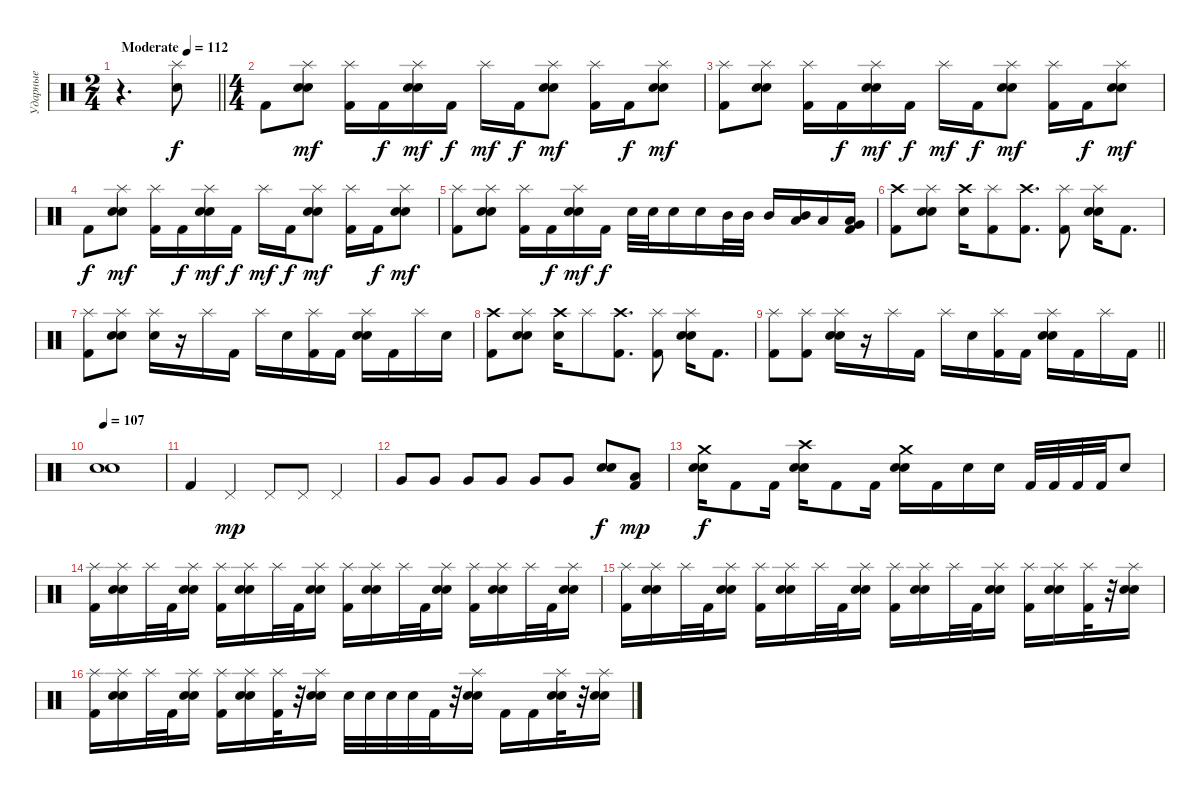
\track ("Ударные" "Ударные") {instrument percussion}
\staff {score}
\articulation defaults
\ts (2 4)
\tempo (112 "Moderate")
\clef neutral
\barLineRight lightlight
\ks c
r.4{d dy f} ("Splash (hit)" "Electric Snare (hit)").8 |
\ts (4 4)
\section ("" "")
"Kick (hit) 2".8 ("Splash (hit)" "Electric Snare (hit)" "Snare (hit) 2").8{dy mf} ("Splash (hit)" "Kick (hit) 2").16 "Kick (hit) 2".16{dy f} ("Splash (hit)" "Electric Snare (hit)" "Snare (hit) 2").16{dy mf} "Kick (hit) 2".16{dy f} "Splash (hit)".16{dy mf} "Kick (hit) 2".16{dy f} ("Splash (hit)" "Electric Snare (hit)" "Snare (hit) 2").8{dy mf} ("Splash (hit)" "Kick (hit) 2").16 "Kick (hit) 2".16{dy f} ("Splash (hit)" "Electric Snare (hit)" "Snare (hit) 2").8{dy mf} |
("Splash (hit)" "Kick (hit) 2").8 ("Splash (hit)" "Electric Snare (hit)" "Snare (hit) 2").8 ("Splash (hit)" "Kick (hit) 2").16 "Kick (hit) 2".16{dy f} ("Splash (hit)" "Electric Snare (hit)" "Snare (hit) 2").16{dy mf} "Kick (hit) 2".16{dy f} "Splash (hit)".16{dy mf} "Kick (hit) 2".16{dy f} ("Splash (hit)" "Electric Snare (hit)" "Snare (hit) 2").8{dy mf} ("Splash (hit)" "Kick (hit) 2").16 "Kick (hit) 2".16{dy f} ("Splash (hit)" "Electric Snare (hit)" "Snare (hit) 2").8{dy mf} |
"Kick (hit) 2".8{dy f} ("Splash (hit)" "Electric Snare (hit)" "Snare (hit) 2").8{dy mf} ("Splash (hit)" "Kick (hit) 2").16 "Kick (hit) 2".16{dy f} ("Splash (hit)" "Electric Snare (hit)" "Snare (hit) 2").16{dy mf} "Kick (hit) 2".16{dy f} "Splash (hit)".16{dy mf} "Kick (hit) 2".16{dy f} ("Splash (hit)" "Electric Snare (hit)" "Snare (hit) 2").8{dy mf} ("Splash (hit)" "Kick (hit) 2").16 "Kick (hit) 2".16{dy f} ("Splash (hit)" "Electric Snare (hit)" "Snare (hit) 2").8{dy mf} |
("Splash (hit)" "Kick (hit) 2").8 ("Splash (hit)" "Electric Snare (hit)" "Snare (hit) 2").8 ("Splash (hit)" "Kick (hit) 2").16 "Kick (hit) 2".16{dy f} ("Splash (hit)" "Electric Snare (hit)" "Snare (hit) 2").16{dy mf} "Kick (hit) 2".16{dy f} "Electric Snare (hit)".32 "Electric Snare (hit)".32 "Electric Snare (hit)".16 "Electric Snare (hit)".16 "Mid Tom (hit)".32 "Mid Tom (hit)".32 "Mid Tom (hit)".16 ("Mid Tom (hit)" "Low Tom (hit)").16 "Low Tom (hit)".16 ("Low Tom (hit)" "Very Low Tom (hit)" "Kick (hit) 2").16 |
("Crash high (hit)" "Kick (hit) 2").8 ("Splash (hit)" "Electric Snare (hit)" "Snare (hit) 2").8 ("Crash high (hit)" "Electric Snare (hit)").16 ("Splash (hit)" "Kick (hit) 2").8 ("Crash high (hit)" "Kick (hit) 2").8{d} ("Splash (hit)" "Kick (hit) 2").8 ("Splash (hit)" "Electric Snare (hit)" "Snare (hit) 2").16 "Kick (hit) 2".8{d} |
("Splash (hit)" "Kick (hit) 2").8 ("Splash (hit)" "Electric Snare (hit)" "Snare (hit) 2").8 ("Splash (hit)" "Electric Snare (hit)").16 r.16 "Splash (hit)".16 "Kick (hit) 2".16 "Splash (hit)".16 "Electric Snare (hit)".16 ("Splash (hit)" "Kick (hit) 2").16 "Kick (hit) 2".16 ("Splash (hit)" "Electric Snare (hit)" "Snare (hit) 2").16 "Kick (hit) 2".16 "Splash (hit)".16 "Electric Snare (hit)".16 |
("Crash high (hit)" "Kick (hit) 2").8 ("Splash (hit)" "Electric Snare (hit)" "Snare (hit) 2").8 ("Crash high (hit)" "Electric Snare (hit)").16 "Splash (hit)".8 ("Crash high (hit)" "Kick (hit) 2").8{d} ("Splash (hit)" "Kick (hit) 2").8 ("Splash (hit)" "Electric Snare (hit)" "Snare (hit) 2").16 "Kick (hit) 2".8{d} |
\barLineRight lightlight
("Splash (hit)" "Kick (hit) 2").8 ("Splash (hit)" "Kick (hit) 2").8 ("Splash (hit)" "Electric Snare (hit)" "Snare (hit) 2").16 r.16 "Splash (hit)".16 "Kick (hit) 2".16 "Splash (hit)".16 "Electric Snare (hit)".16 ("Splash (hit)" "Kick (hit) 2").16 "Kick (hit) 2".16 ("Splash (hit)" "Electric Snare (hit)" "Snare (hit) 2").16 "Kick (hit) 2".16 "Splash (hit)".16 "Kick (hit) 2".16 |
\section ("" "")
\tempo 107
("Electric Snare (hit)" "Snare (hit) 2").1 |
"Kick (hit) 2".4 "Pedal Hi-Hat (hit)".4{dy mp} "Pedal Hi-Hat (hit)".8 "Pedal Hi-Hat (hit)".8 "Pedal Hi-Hat (hit)".4 |
"Very Low Tom (hit)".8 "Very Low Tom (hit)".8 "Very Low Tom (hit)".8 "Very Low Tom (hit)".8 "Very Low Tom (hit)".8 "Very Low Tom (hit)".8 ("Electric Snare (hit)" "Snare (hit) 2").8{dy f} ("Low Tom (hit)" "Kick (hit) 2").8{dy mp} |
("Crash medium (hit)" "Electric Snare (hit)" "Snare (hit) 2").16{dy f} "Kick (hit) 2".8 "Kick (hit) 2".16 ("Crash high (hit)" "Electric Snare (hit)" "Snare (hit) 2").16 "Kick (hit) 2".8 "Kick (hit) 2".16 ("Crash medium (hit)" "Electric Snare (hit)" "Snare (hit) 2").16 "Kick (hit) 2".16 "Electric Snare (hit)".16 "Electric Snare (hit)".16 "Kick (hit) 2".32 "Kick (hit) 2".32 "Kick (hit) 2".32 "Kick (hit) 2".32 "Electric Snare (hit)".8 |
("Splash (hit)" "Kick (hit) 2").16 ("Splash (hit)" "Electric Snare (hit)" "Snare (hit) 2").16 "Splash (hit)".32 "Kick (hit) 2".32 ("Splash (hit)" "Electric Snare (hit)" "Snare (hit) 2").16 ("Splash (hit)" "Kick (hit) 2").16 ("Splash (hit)" "Electric Snare (hit)" "Snare (hit) 2").16 "Splash (hit)".32 "Kick (hit) 2".32 ("Splash (hit)" "Electric Snare (hit)" "Snare (hit) 2").16 ("Splash (hit)" "Kick (hit) 2").16 ("Splash (hit)" "Electric Snare (hit)" "Snare (hit) 2").16 "Splash (hit)".32 "Kick (hit) 2".32 ("Splash (hit)" "Electric Snare (hit)" "Snare (hit) 2").16 ("Splash (hit)" "Kick (hit) 2").16 ("Splash (hit)" "Electric Snare (hit)" "Snare (hit) 2").16 "Splash (hit)".32 "Kick (hit) 2".32 ("Splash (hit)" "Electric Snare (hit)" "Snare (hit) 2").16 |
("Splash (hit)" "Kick (hit) 2").16 ("Splash (hit)" "Electric Snare (hit)" "Snare (hit) 2").16 "Splash (hit)".32 "Kick (hit) 2".32 ("Splash (hit)" "Electric Snare (hit)" "Snare (hit) 2").16 ("Splash (hit)" "Kick (hit) 2").16 ("Splash (hit)" "Electric Snare (hit)" "Snare (hit) 2").16 "Splash (hit)".32 "Kick (hit) 2".32 ("Splash (hit)" "Electric Snare (hit)" "Snare (hit) 2").16 ("Splash (hit)" "Kick (hit) 2").16 ("Splash (hit)" "Electric Snare (hit)" "Snare (hit) 2").16 "Splash (hit)".32 "Kick (hit) 2".32 ("Splash (hit)" "Electric Snare (hit)" "Snare (hit) 2").16 ("Splash (hit)" "Kick (hit) 2").16 ("Splash (hit)" "Electric Snare (hit)" "Snare (hit) 2").16 ("Splash (hit)" "Kick (hit) 2").32 r.32 ("Splash (hit)" "Electric Snare (hit)" "Snare (hit) 2").16 |
("Splash (hit)" "Kick (hit) 2").16 ("Splash (hit)" "Electric Snare (hit)" "Snare (hit) 2").16 "Splash (hit)".32 "Kick (hit) 2".32 ("Splash (hit)" "Electric Snare (hit)" "Snare (hit) 2").16 ("Splash (hit)" "Kick (hit) 2").16 ("Splash (hit)" "Electric Snare (hit)" "Snare (hit) 2").16 ("Splash (hit)" "Kick (hit) 2").32 r.32 ("Splash (hit)" "Electric Snare (hit)" "Snare (hit) 2").16 "Electric Snare (hit)".32 "Electric Snare (hit)".32 "Electric Snare (hit)".32 "Electric Snare (hit)".32 "Kick (hit) 2".32 r.32 ("Splash (hit)" "Electric Snare (hit)" "Snare (hit) 2").16 "Kick (hit) 2".16 "Kick (hit) 2".16 ("Splash (hit)" "Electric Snare (hit)" "Snare (hit) 2").32 r.32 ("Splash (hit)" "Electric Snare (hit)" "Snare (hit) 2").16
